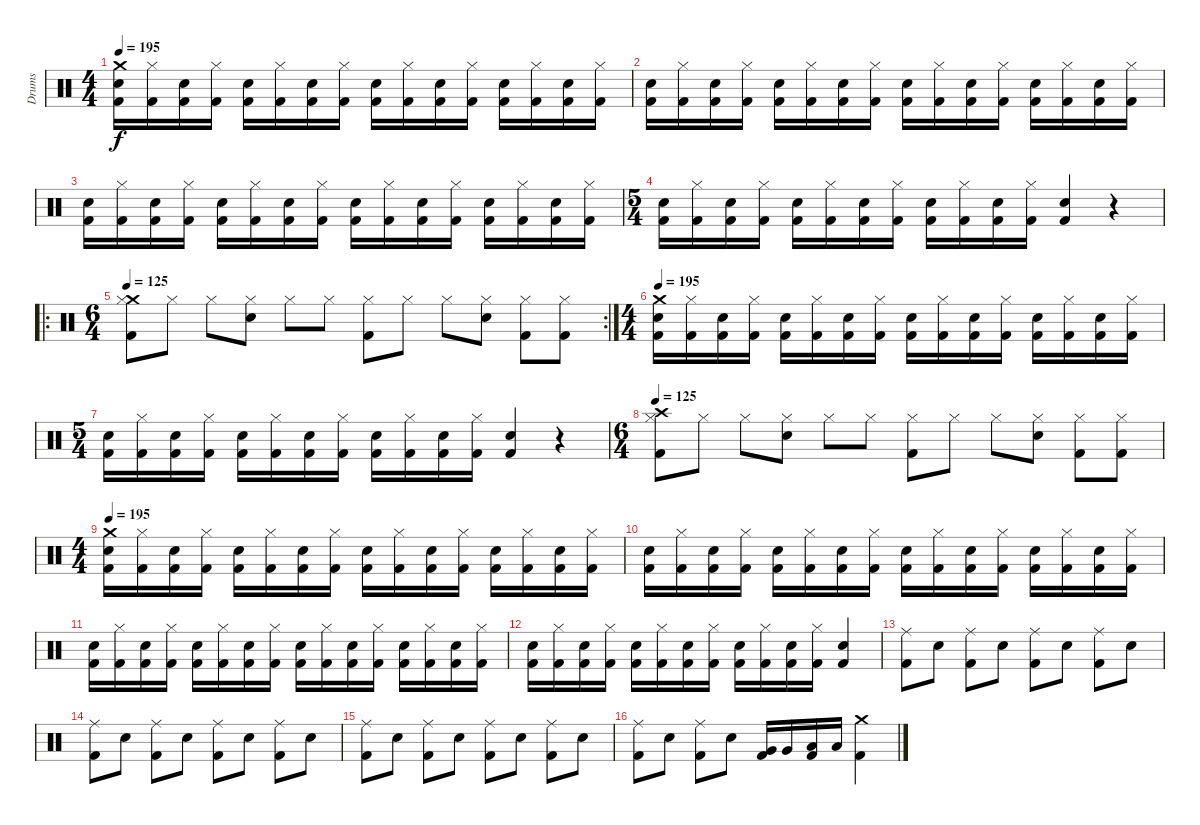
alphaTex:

\track ("Drums" "Drums") {instrument percussion}
\staff {score}
\articulation defaults
\ts (4 4)
\tempo 195
\clef neutral
\ks c
("Crash medium (hit)" "Kick (hit) 2" "Snare (hit) 2").16{dy f} ("Hi-Hat (closed)" "Kick (hit) 2").16 ("Kick (hit) 2" "Snare (hit) 2").16 ("Hi-Hat (closed)" "Kick (hit) 2").16 ("Kick (hit) 2" "Snare (hit) 2").16 ("Hi-Hat (closed)" "Kick (hit) 2").16 ("Kick (hit) 2" "Snare (hit) 2").16 ("Hi-Hat (closed)" "Kick (hit) 2").16 ("Kick (hit) 2" "Snare (hit) 2").16 ("Hi-Hat (closed)" "Kick (hit) 2").16 ("Kick (hit) 2" "Snare (hit) 2").16 ("Hi-Hat (closed)" "Kick (hit) 2").16 ("Kick (hit) 2" "Snare (hit) 2").16 ("Hi-Hat (closed)" "Kick (hit) 2").16 ("Kick (hit) 2" "Snare (hit) 2").16 ("Hi-Hat (closed)" "Kick (hit) 2").16 |
("Kick (hit) 2" "Snare (hit) 2").16 ("Hi-Hat (closed)" "Kick (hit) 2").16 ("Kick (hit) 2" "Snare (hit) 2").16 ("Hi-Hat (closed)" "Kick (hit) 2").16 ("Kick (hit) 2" "Snare (hit) 2").16 ("Hi-Hat (closed)" "Kick (hit) 2").16 ("Kick (hit) 2" "Snare (hit) 2").16 ("Hi-Hat (closed)" "Kick (hit) 2").16 ("Kick (hit) 2" "Snare (hit) 2").16 ("Hi-Hat (closed)" "Kick (hit) 2").16 ("Kick (hit) 2" "Snare (hit) 2").16 ("Hi-Hat (closed)" "Kick (hit) 2").16 ("Kick (hit) 2" "Snare (hit) 2").16 ("Hi-Hat (closed)" "Kick (hit) 2").16 ("Kick (hit) 2" "Snare (hit) 2").16 ("Hi-Hat (closed)" "Kick (hit) 2").16 |
("Kick (hit) 2" "Snare (hit) 2").16 ("Hi-Hat (closed)" "Kick (hit) 2").16 ("Kick (hit) 2" "Snare (hit) 2").16 ("Hi-Hat (closed)" "Kick (hit) 2").16 ("Kick (hit) 2" "Snare (hit) 2").16 ("Hi-Hat (closed)" "Kick (hit) 2").16 ("Kick (hit) 2" "Snare (hit) 2").16 ("Hi-Hat (closed)" "Kick (hit) 2").16 ("Kick (hit) 2" "Snare (hit) 2").16 ("Hi-Hat (closed)" "Kick (hit) 2").16 ("Kick (hit) 2" "Snare (hit) 2").16 ("Hi-Hat (closed)" "Kick (hit) 2").16 ("Kick (hit) 2" "Snare (hit) 2").16 ("Hi-Hat (closed)" "Kick (hit) 2").16 ("Kick (hit) 2" "Snare (hit) 2").16 ("Hi-Hat (closed)" "Kick (hit) 2").16 |
\ts (5 4)
("Kick (hit) 2" "Snare (hit) 2").16 ("Hi-Hat (closed)" "Kick (hit) 2").16 ("Kick (hit) 2" "Snare (hit) 2").16 ("Hi-Hat (closed)" "Kick (hit) 2").16 ("Kick (hit) 2" "Snare (hit) 2").16 ("Hi-Hat (closed)" "Kick (hit) 2").16 ("Kick (hit) 2" "Snare (hit) 2").16 ("Hi-Hat (closed)" "Kick (hit) 2").16 ("Kick (hit) 2" "Snare (hit) 2").16 ("Hi-Hat (closed)" "Kick (hit) 2").16 ("Kick (hit) 2" "Snare (hit) 2").16 ("Hi-Hat (closed)" "Kick (hit) 2").16 ("Kick (hit) 2" "Snare (hit) 2").4 r.4 |
\ro
\rc 2
\ts (6 4)
\tempo 125
("Crash medium (hit)" "Hi-Hat (closed)" "Kick (hit) 2").8 "Hi-Hat (closed)".8 "Hi-Hat (closed)".8 ("Hi-Hat (closed)" "Snare (hit) 2").8 "Hi-Hat (closed)".8 "Hi-Hat (closed)".8 ("Hi-Hat (closed)" "Kick (hit) 2").8 "Hi-Hat (closed)".8 "Hi-Hat (closed)".8 ("Hi-Hat (closed)" "Snare (hit) 2").8 ("Hi-Hat (closed)" "Kick (hit) 2").8 ("Hi-Hat (closed)" "Kick (hit) 2").8 |
\ts (4 4)
\tempo 195
("Crash medium (hit)" "Kick (hit) 2" "Snare (hit) 2").16 ("Hi-Hat (closed)" "Kick (hit) 2").16 ("Kick (hit) 2" "Snare (hit) 2").16 ("Hi-Hat (closed)" "Kick (hit) 2").16 ("Kick (hit) 2" "Snare (hit) 2").16 ("Hi-Hat (closed)" "Kick (hit) 2").16 ("Kick (hit) 2" "Snare (hit) 2").16 ("Hi-Hat (closed)" "Kick (hit) 2").16 ("Kick (hit) 2" "Snare (hit) 2").16 ("Hi-Hat (closed)" "Kick (hit) 2").16 ("Kick (hit) 2" "Snare (hit) 2").16 ("Hi-Hat (closed)" "Kick (hit) 2").16 ("Kick (hit) 2" "Snare (hit) 2").16 ("Hi-Hat (closed)" "Kick (hit) 2").16 ("Kick (hit) 2" "Snare (hit) 2").16 ("Hi-Hat (closed)" "Kick (hit) 2").16 |
\ts (5 4)
("Kick (hit) 2" "Snare (hit) 2").16 ("Hi-Hat (closed)" "Kick (hit) 2").16 ("Kick (hit) 2" "Snare (hit) 2").16 ("Hi-Hat (closed)" "Kick (hit) 2").16 ("Kick (hit) 2" "Snare (hit) 2").16 ("Hi-Hat (closed)" "Kick (hit) 2").16 ("Kick (hit) 2" "Snare (hit) 2").16 ("Hi-Hat (closed)" "Kick (hit) 2").16 ("Kick (hit) 2" "Snare (hit) 2").16 ("Hi-Hat (closed)" "Kick (hit) 2").16 ("Kick (hit) 2" "Snare (hit) 2").16 ("Hi-Hat (closed)" "Kick (hit) 2").16 ("Kick (hit) 2" "Snare (hit) 2").4 r.4 |
\ts (6 4)
\tempo 125
("Crash high (hit)" "Hi-Hat (closed)" "Kick (hit) 2").8 "Hi-Hat (closed)".8 "Hi-Hat (closed)".8 ("Hi-Hat (closed)" "Snare (hit) 2").8 "Hi-Hat (closed)".8 "Hi-Hat (closed)".8 ("Hi-Hat (closed)" "Kick (hit) 2").8 "Hi-Hat (closed)".8 "Hi-Hat (closed)".8 ("Hi-Hat (closed)" "Snare (hit) 2").8 ("Hi-Hat (closed)" "Kick (hit) 2").8 ("Hi-Hat (closed)" "Kick (hit) 2").8 |
\ts (4 4)
\tempo 195
("Crash medium (hit)" "Kick (hit) 2" "Snare (hit) 2").16 ("Hi-Hat (closed)" "Kick (hit) 2").16 ("Kick (hit) 2" "Snare (hit) 2").16 ("Hi-Hat (closed)" "Kick (hit) 2").16 ("Kick (hit) 2" "Snare (hit) 2").16 ("Hi-Hat (closed)" "Kick (hit) 2").16 ("Kick (hit) 2" "Snare (hit) 2").16 ("Hi-Hat (closed)" "Kick (hit) 2").16 ("Kick (hit) 2" "Snare (hit) 2").16 ("Hi-Hat (closed)" "Kick (hit) 2").16 ("Kick (hit) 2" "Snare (hit) 2").16 ("Hi-Hat (closed)" "Kick (hit) 2").16 ("Kick (hit) 2" "Snare (hit) 2").16 ("Hi-Hat (closed)" "Kick (hit) 2").16 ("Kick (hit) 2" "Snare (hit) 2").16 ("Hi-Hat (closed)" "Kick (hit) 2").16 |
("Kick (hit) 2" "Snare (hit) 2").16 ("Hi-Hat (closed)" "Kick (hit) 2").16 ("Kick (hit) 2" "Snare (hit) 2").16 ("Hi-Hat (closed)" "Kick (hit) 2").16 ("Kick (hit) 2" "Snare (hit) 2").16 ("Hi-Hat (closed)" "Kick (hit) 2").16 ("Kick (hit) 2" "Snare (hit) 2").16 ("Hi-Hat (closed)" "Kick (hit) 2").16 ("Kick (hit) 2" "Snare (hit) 2").16 ("Hi-Hat (closed)" "Kick (hit) 2").16 ("Kick (hit) 2" "Snare (hit) 2").16 ("Hi-Hat (closed)" "Kick (hit) 2").16 ("Kick (hit) 2" "Snare (hit) 2").16 ("Hi-Hat (closed)" "Kick (hit) 2").16 ("Kick (hit) 2" "Snare (hit) 2").16 ("Hi-Hat (closed)" "Kick (hit) 2").16 |
("Kick (hit) 2" "Snare (hit) 2").16 ("Hi-Hat (closed)" "Kick (hit) 2").16 ("Kick (hit) 2" "Snare (hit) 2").16 ("Hi-Hat (closed)" "Kick (hit) 2").16 ("Kick (hit) 2" "Snare (hit) 2").16 ("Hi-Hat (closed)" "Kick (hit) 2").16 ("Kick (hit) 2" "Snare (hit) 2").16 ("Hi-Hat (closed)" "Kick (hit) 2").16 ("Kick (hit) 2" "Snare (hit) 2").16 ("Hi-Hat (closed)" "Kick (hit) 2").16 ("Kick (hit) 2" "Snare (hit) 2").16 ("Hi-Hat (closed)" "Kick (hit) 2").16 ("Kick (hit) 2" "Snare (hit) 2").16 ("Hi-Hat (closed)" "Kick (hit) 2").16 ("Kick (hit) 2" "Snare (hit) 2").16 ("Hi-Hat (closed)" "Kick (hit) 2").16 |
("Kick (hit) 2" "Snare (hit) 2").16 ("Hi-Hat (closed)" "Kick (hit) 2").16 ("Kick (hit) 2" "Snare (hit) 2").16 ("Hi-Hat (closed)" "Kick (hit) 2").16 ("Kick (hit) 2" "Snare (hit) 2").16 ("Hi-Hat (closed)" "Kick (hit) 2").16 ("Kick (hit) 2" "Snare (hit) 2").16 ("Hi-Hat (closed)" "Kick (hit) 2").16 ("Kick (hit) 2" "Snare (hit) 2").16 ("Hi-Hat (closed)" "Kick (hit) 2").16 ("Kick (hit) 2" "Snare (hit) 2").16 ("Hi-Hat (closed)" "Kick (hit) 2").16 ("Kick (hit) 2" "Snare (hit) 2").4 |
("Ride (middle)" "Kick (hit) 2").8 "Snare (hit) 2".8 ("Ride (middle)" "Kick (hit) 2").8 "Snare (hit) 2".8 ("Ride (middle)" "Kick (hit) 2").8 "Snare (hit) 2".8 ("Ride (middle)" "Kick (hit) 2").8 "Snare (hit) 2".8 |
("Ride (middle)" "Kick (hit) 2").8 "Snare (hit) 2".8 ("Ride (middle)" "Kick (hit) 2").8 "Snare (hit) 2".8 ("Ride (middle)" "Kick (hit) 2").8 "Snare (hit) 2".8 ("Ride (middle)" "Kick (hit) 2").8 "Snare (hit) 2".8 |
("Ride (middle)" "Kick (hit) 2").8 "Snare (hit) 2".8 ("Ride (middle)" "Kick (hit) 2").8 "Snare (hit) 2".8 ("Ride (middle)" "Kick (hit) 2").8 "Snare (hit) 2".8 ("Ride (middle)" "Kick (hit) 2").8 "Snare (hit) 2".8 |
("Ride (middle)" "Kick (hit) 2").8 "Snare (hit) 2".8 ("Ride (middle)" "Kick (hit) 2").8 "Snare (hit) 2".8 ("Kick (hit) 2" "Very Low Tom (hit)").16 "Very Low Tom (hit)".16 ("Kick (hit) 2" "Low Floor Tom (hit)").16 "Low Floor Tom (hit)".16 ("Crash medium (hit)" "Kick (hit) 2").4
